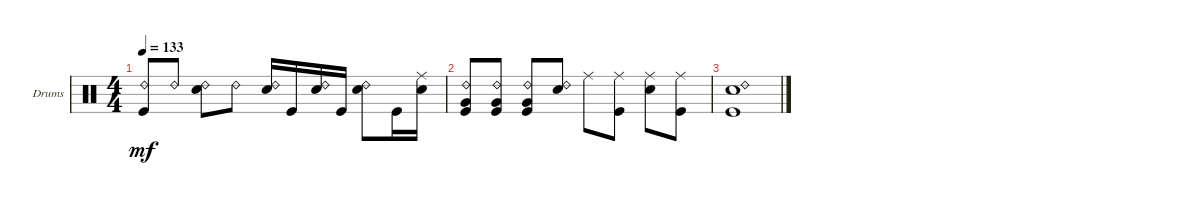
\defaultSystemsLayout 4
\bracketExtendMode groupsimilarinstruments
\firstSystemTrackNameOrientation horizontal
\otherSystemsTrackNameOrientation horizontal
\chordDiagramsInScore
\track ("Drumkit" "Drums") {instrument percussion}
\staff {score}
\articulation defaults
\ts (4 4)
\tempo 133
\clef neutral
\ks c
("Kick (hit)" "Ride (bell) 2").8{dy mf} "Ride (bell) 2".8 ("Snare (hit) 2" "Ride (bell) 2").8 "Ride (bell) 2".8 ("Snare (hit) 2" "Ride (bell) 2").16 "Kick (hit)".16 ("Snare (hit) 2" "Ride (bell) 2").16 "Kick (hit)".16 ("Snare (hit) 2" "Ride (bell) 2").8 "Kick (hit)".16 ("Snare (hit) 2" "Ride (middle)").16 |
("Very Low Tom (hit)" "Kick (hit)" "Ride (bell) 2").8 ("Very Low Tom (hit)" "Kick (hit)" "Ride (bell) 2").8 ("Very Low Tom (hit)" "Kick (hit)" "Ride (bell) 2").8 ("Snare (hit) 2" "Ride (bell) 2").8 "Ride (middle)".8 ("Kick (hit)" "Ride (middle)").8 ("Snare (hit) 2" "Ride (middle)").8 ("Kick (hit)" "Ride (middle)").8 |
("Kick (hit)" "Snare (hit) 2" "Ride (bell) 2").1
